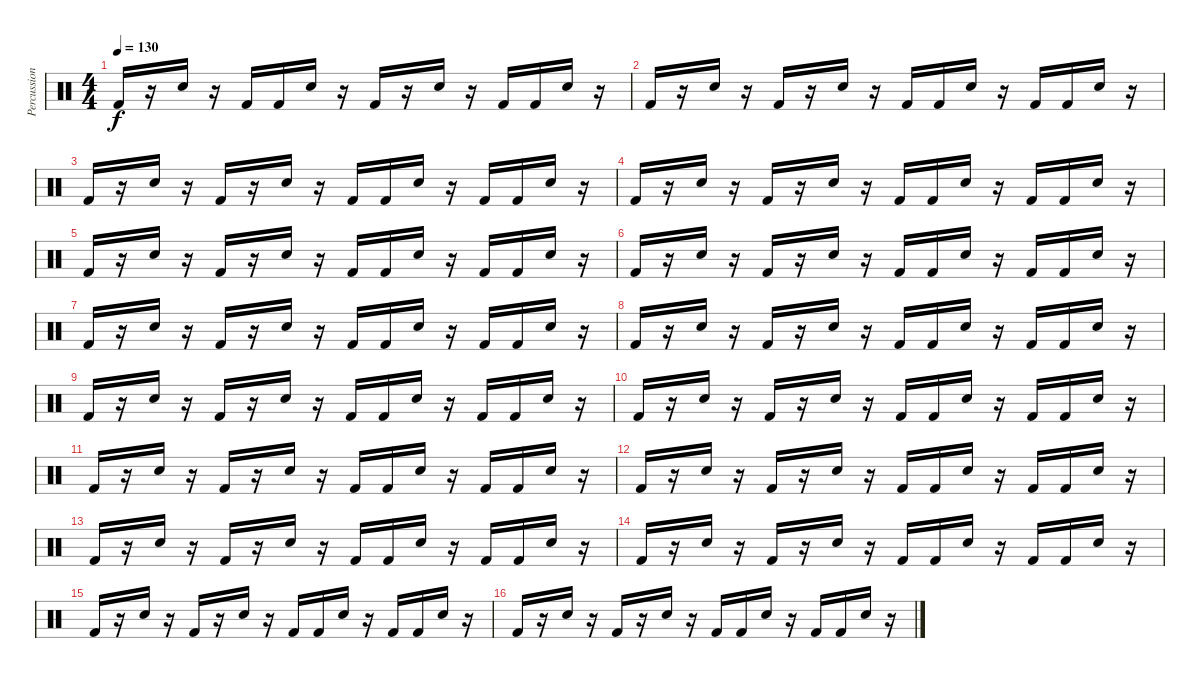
\track ("Percussion" "Percussion") {instrument percussion}
\staff {score}
\articulation defaults
\ts (4 4)
\tempo 130
\clef neutral
\ks c "Kick (hit) 2".16{dy f}
r.16 "Snare (hit) 2".16 r.16 "Kick (hit) 2".16 "Kick (hit) 2".16 "Snare (hit) 2".16 r.16 "Kick (hit) 2".16 r.16 "Snare (hit) 2".16 r.16 "Kick (hit) 2".16 "Kick (hit) 2".16 "Snare (hit) 2".16 r.16 |
"Kick (hit) 2".16 r.16 "Snare (hit) 2".16 r.16 "Kick (hit) 2".16 r.16 "Snare (hit) 2".16 r.16 "Kick (hit) 2".16 "Kick (hit) 2".16 "Snare (hit) 2".16 r.16 "Kick (hit) 2".16 "Kick (hit) 2".16 "Snare (hit) 2".16 r.16 |
"Kick (hit) 2".16 r.16 "Snare (hit) 2".16 r.16 "Kick (hit) 2".16 r.16 "Snare (hit) 2".16 r.16 "Kick (hit) 2".16 "Kick (hit) 2".16 "Snare (hit) 2".16 r.16 "Kick (hit) 2".16 "Kick (hit) 2".16 "Snare (hit) 2".16 r.16 |
"Kick (hit) 2".16 r.16 "Snare (hit) 2".16 r.16 "Kick (hit) 2".16 r.16 "Snare (hit) 2".16 r.16 "Kick (hit) 2".16 "Kick (hit) 2".16 "Snare (hit) 2".16 r.16 "Kick (hit) 2".16 "Kick (hit) 2".16 "Snare (hit) 2".16 r.16 |
"Kick (hit) 2".16 r.16 "Snare (hit) 2".16 r.16 "Kick (hit) 2".16 r.16 "Snare (hit) 2".16 r.16 "Kick (hit) 2".16 "Kick (hit) 2".16 "Snare (hit) 2".16 r.16 "Kick (hit) 2".16 "Kick (hit) 2".16 "Snare (hit) 2".16 r.16 |
"Kick (hit) 2".16 r.16 "Snare (hit) 2".16 r.16 "Kick (hit) 2".16 r.16 "Snare (hit) 2".16 r.16 "Kick (hit) 2".16 "Kick (hit) 2".16 "Snare (hit) 2".16 r.16 "Kick (hit) 2".16 "Kick (hit) 2".16 "Snare (hit) 2".16 r.16 |
"Kick (hit) 2".16 r.16 "Snare (hit) 2".16 r.16 "Kick (hit) 2".16 r.16 "Snare (hit) 2".16 r.16 "Kick (hit) 2".16 "Kick (hit) 2".16 "Snare (hit) 2".16 r.16 "Kick (hit) 2".16 "Kick (hit) 2".16 "Snare (hit) 2".16 r.16 |
"Kick (hit) 2".16 r.16 "Snare (hit) 2".16 r.16 "Kick (hit) 2".16 r.16 "Snare (hit) 2".16 r.16 "Kick (hit) 2".16 "Kick (hit) 2".16 "Snare (hit) 2".16 r.16 "Kick (hit) 2".16 "Kick (hit) 2".16 "Snare (hit) 2".16 r.16 |
"Kick (hit) 2".16 r.16 "Snare (hit) 2".16 r.16 "Kick (hit) 2".16 r.16 "Snare (hit) 2".16 r.16 "Kick (hit) 2".16 "Kick (hit) 2".16 "Snare (hit) 2".16 r.16 "Kick (hit) 2".16 "Kick (hit) 2".16 "Snare (hit) 2".16 r.16 |
"Kick (hit) 2".16 r.16 "Snare (hit) 2".16 r.16 "Kick (hit) 2".16 r.16 "Snare (hit) 2".16 r.16 "Kick (hit) 2".16 "Kick (hit) 2".16 "Snare (hit) 2".16 r.16 "Kick (hit) 2".16 "Kick (hit) 2".16 "Snare (hit) 2".16 r.16 |
"Kick (hit) 2".16 r.16 "Snare (hit) 2".16 r.16 "Kick (hit) 2".16 r.16 "Snare (hit) 2".16 r.16 "Kick (hit) 2".16 "Kick (hit) 2".16 "Snare (hit) 2".16 r.16 "Kick (hit) 2".16 "Kick (hit) 2".16 "Snare (hit) 2".16 r.16 |
"Kick (hit) 2".16 r.16 "Snare (hit) 2".16 r.16 "Kick (hit) 2".16 r.16 "Snare (hit) 2".16 r.16 "Kick (hit) 2".16 "Kick (hit) 2".16 "Snare (hit) 2".16 r.16 "Kick (hit) 2".16 "Kick (hit) 2".16 "Snare (hit) 2".16 r.16 |
"Kick (hit) 2".16 r.16 "Snare (hit) 2".16 r.16 "Kick (hit) 2".16 r.16 "Snare (hit) 2".16 r.16 "Kick (hit) 2".16 "Kick (hit) 2".16 "Snare (hit) 2".16 r.16 "Kick (hit) 2".16 "Kick (hit) 2".16 "Snare (hit) 2".16 r.16 |
"Kick (hit) 2".16 r.16 "Snare (hit) 2".16 r.16 "Kick (hit) 2".16 r.16 "Snare (hit) 2".16 r.16 "Kick (hit) 2".16 "Kick (hit) 2".16 "Snare (hit) 2".16 r.16 "Kick (hit) 2".16 "Kick (hit) 2".16 "Snare (hit) 2".16 r.16 |
"Kick (hit) 2".16 r.16 "Snare (hit) 2".16 r.16 "Kick (hit) 2".16 r.16 "Snare (hit) 2".16 r.16 "Kick (hit) 2".16 "Kick (hit) 2".16 "Snare (hit) 2".16 r.16 "Kick (hit) 2".16 "Kick (hit) 2".16 "Snare (hit) 2".16 r.16 |
"Kick (hit) 2".16 r.16 "Snare (hit) 2".16 r.16 "Kick (hit) 2".16 r.16 "Snare (hit) 2".16 r.16 "Kick (hit) 2".16 "Kick (hit) 2".16 "Snare (hit) 2".16 r.16 "Kick (hit) 2".16 "Kick (hit) 2".16 "Snare (hit) 2".16 r.16
